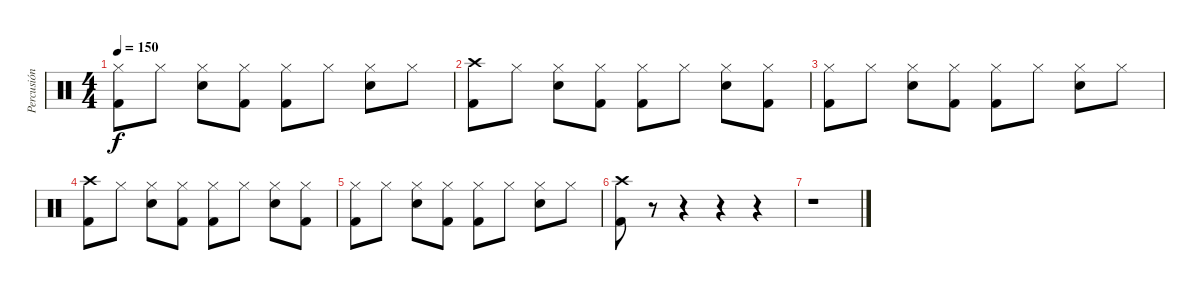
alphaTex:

\track ("Percusión" "Percusión") {instrument percussion}
\staff {score}
\articulation defaults
\ts (4 4)
\tempo 150
\clef neutral
\ks c
("Kick (hit) 2" "Hi-Hat (closed)").8{dy f} "Hi-Hat (closed)".8 ("Hi-Hat (closed)" "Electric Snare (hit)").8 ("Kick (hit) 2" "Hi-Hat (closed)").8 ("Kick (hit) 2" "Hi-Hat (closed)").8 "Hi-Hat (closed)".8 ("Hi-Hat (closed)" "Electric Snare (hit)").8 "Hi-Hat (closed)".8 |
("Kick (hit) 2" "Crash high (hit)").8 "Hi-Hat (closed)".8 ("Hi-Hat (closed)" "Electric Snare (hit)").8 ("Kick (hit) 2" "Hi-Hat (closed)").8 ("Kick (hit) 2" "Hi-Hat (closed)").8 "Hi-Hat (closed)".8 ("Hi-Hat (closed)" "Electric Snare (hit)").8 ("Kick (hit) 2" "Hi-Hat (closed)").8 |
("Kick (hit) 2" "Hi-Hat (closed)").8 "Hi-Hat (closed)".8 ("Hi-Hat (closed)" "Electric Snare (hit)").8 ("Kick (hit) 2" "Hi-Hat (closed)").8 ("Kick (hit) 2" "Hi-Hat (closed)").8 "Hi-Hat (closed)".8 ("Hi-Hat (closed)" "Electric Snare (hit)").8 "Hi-Hat (closed)".8 |
("Kick (hit) 2" "Crash high (hit)").8 "Hi-Hat (closed)".8 ("Hi-Hat (closed)" "Electric Snare (hit)").8 ("Kick (hit) 2" "Hi-Hat (closed)").8 ("Kick (hit) 2" "Hi-Hat (closed)").8 "Hi-Hat (closed)".8 ("Hi-Hat (closed)" "Electric Snare (hit)").8 ("Kick (hit) 2" "Hi-Hat (closed)").8 |
("Kick (hit) 2" "Hi-Hat (closed)").8 "Hi-Hat (closed)".8 ("Hi-Hat (closed)" "Electric Snare (hit)").8 ("Kick (hit) 2" "Hi-Hat (closed)").8 ("Kick (hit) 2" "Hi-Hat (closed)").8 "Hi-Hat (closed)".8 ("Hi-Hat (closed)" "Electric Snare (hit)").8 "Hi-Hat (closed)".8 |
("Kick (hit) 2" "Crash high (hit)").8 r.8 r.4 r.4 r.4 |
r.1
